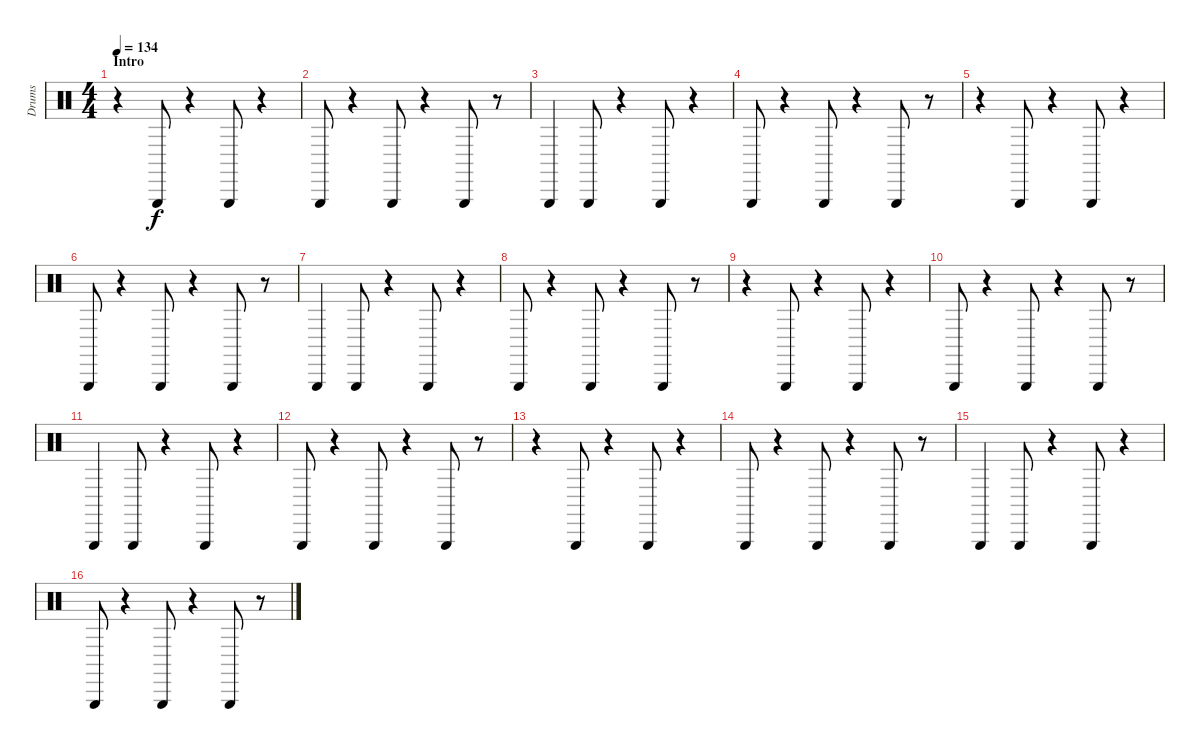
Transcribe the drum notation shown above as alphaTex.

\track ("Drums" "Drums") {instrument percussion}
\staff {score}
\articulation defaults
\ts (4 4)
\section ("" "Intro")
\tempo 134
\clef neutral
\ks c
r.4{dy f volume 11} "Triangle (hit)".8 r.4 "Triangle (hit)".8 r.4 |
"Triangle (hit)".8 r.4 "Triangle (hit)".8 r.4 "Triangle (hit)".8 r.8 |
"Triangle (hit)".4 "Triangle (hit)".8 r.4 "Triangle (hit)".8 r.4 |
"Triangle (hit)".8 r.4 "Triangle (hit)".8 r.4 "Triangle (hit)".8 r.8 |
r.4 "Triangle (hit)".8 r.4 "Triangle (hit)".8 r.4 |
"Triangle (hit)".8 r.4 "Triangle (hit)".8 r.4 "Triangle (hit)".8 r.8 |
"Triangle (hit)".4 "Triangle (hit)".8 r.4 "Triangle (hit)".8 r.4 |
"Triangle (hit)".8 r.4 "Triangle (hit)".8 r.4 "Triangle (hit)".8 r.8 |
r.4 "Triangle (hit)".8 r.4 "Triangle (hit)".8 r.4 |
"Triangle (hit)".8 r.4 "Triangle (hit)".8 r.4 "Triangle (hit)".8 r.8 |
"Triangle (hit)".4 "Triangle (hit)".8 r.4 "Triangle (hit)".8 r.4 |
"Triangle (hit)".8 r.4 "Triangle (hit)".8 r.4 "Triangle (hit)".8 r.8 |
r.4 "Triangle (hit)".8 r.4 "Triangle (hit)".8 r.4 |
"Triangle (hit)".8 r.4 "Triangle (hit)".8 r.4 "Triangle (hit)".8 r.8 |
"Triangle (hit)".4 "Triangle (hit)".8 r.4 "Triangle (hit)".8 r.4 |
"Triangle (hit)".8 r.4 "Triangle (hit)".8 r.4 "Triangle (hit)".8 r.8
